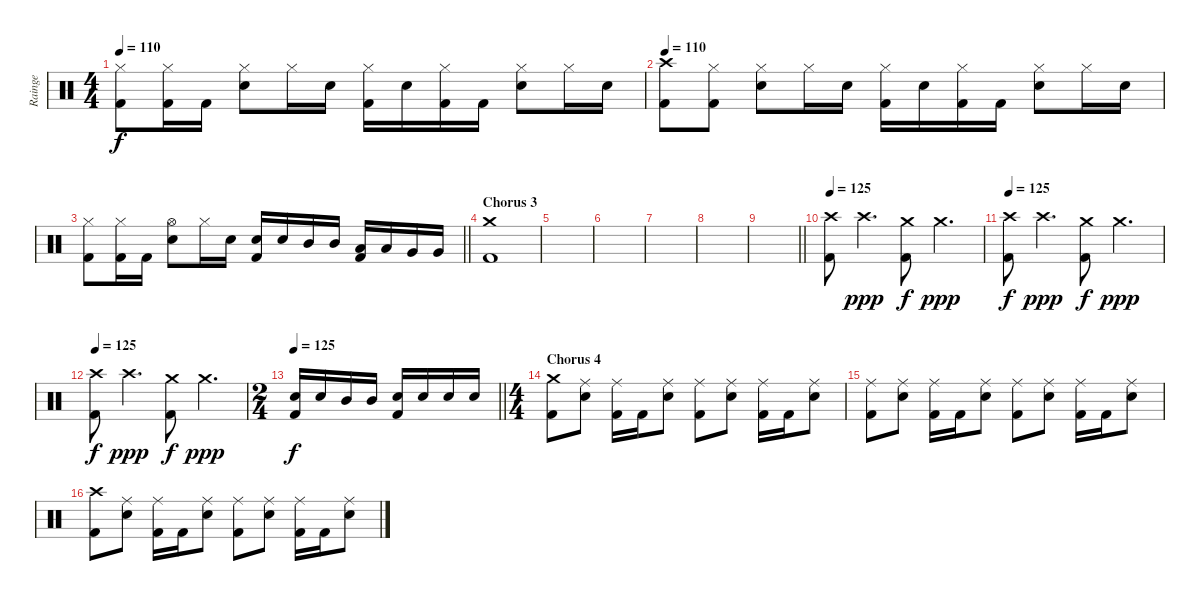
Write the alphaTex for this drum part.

\track ("Rainge" "Rainge") {instrument percussion}
\staff {score}
\articulation defaults
\ts (4 4)
\tempo 110
\clef neutral
\ks c
("Hi-Hat (closed)" "Kick (hit) 2").8{dy f} ("Hi-Hat (closed)" "Kick (hit) 2").16 "Kick (hit) 2".16 ("Hi-Hat (closed)" "Electric Snare (hit)").8 "Hi-Hat (closed)".16 "Electric Snare (hit)".16 ("Hi-Hat (closed)" "Kick (hit) 2").16 "Electric Snare (hit)".16 ("Hi-Hat (closed)" "Kick (hit) 2").16 "Kick (hit) 2".16 ("Hi-Hat (closed)" "Electric Snare (hit)").8 "Hi-Hat (closed)".16 "Electric Snare (hit)".16 |
\tempo 110
("Crash high (hit)" "Kick (hit) 2").8 ("Hi-Hat (closed)" "Kick (hit) 2").8 ("Hi-Hat (closed)" "Electric Snare (hit)").8 "Hi-Hat (closed)".16 "Electric Snare (hit)".16 ("Hi-Hat (closed)" "Kick (hit) 2").16 "Electric Snare (hit)".16 ("Hi-Hat (closed)" "Kick (hit) 2").16 "Kick (hit) 2".16 ("Hi-Hat (closed)" "Electric Snare (hit)").8 "Hi-Hat (closed)".16 "Electric Snare (hit)".16 |
\barLineRight lightlight
("Hi-Hat (closed)" "Kick (hit) 2").8 ("Hi-Hat (closed)" "Kick (hit) 2").16 "Kick (hit) 2".16 ("Hi-Hat (open)" "Electric Snare (hit)").8 "Hi-Hat (closed)".16 "Electric Snare (hit)".16 ("Electric Snare (hit)" "Kick (hit) 2").16 "Electric Snare (hit)".16 "Mid Tom (hit)".16 "Mid Tom (hit)".16 ("Low Tom (hit)" "Kick (hit) 2").16 "Low Tom (hit)".16 "Very Low Tom (hit)".16 "Very Low Tom (hit)".16 |
\section ("" "Chorus 3")
("Crash medium (hit)" "Kick (hit) 2").1 |
|
|
|
|
\barLineRight lightlight
|
\section ("" "")
\tempo 125
("Crash high (hit)" "Kick (hit) 2").8 "Crash high (hit)".4{d dy ppp} ("Crash medium (hit)" "Kick (hit) 2").8{dy f} "Crash medium (hit)".4{d dy ppp} |
\tempo 125
("Crash high (hit)" "Kick (hit) 2").8{dy f} "Crash high (hit)".4{d dy ppp} ("Crash medium (hit)" "Kick (hit) 2").8{dy f} "Crash medium (hit)".4{d dy ppp} |
\tempo 125
("Crash high (hit)" "Kick (hit) 2").8{dy f} "Crash high (hit)".4{d dy ppp} ("Crash medium (hit)" "Kick (hit) 2").8{dy f} "Crash medium (hit)".4{d dy ppp} |
\ts (2 4)
\tempo 125
\barLineRight lightlight
("Electric Snare (hit)" "Kick (hit) 2").16{dy f} "Electric Snare (hit)".16 "Mid Tom (hit)".16 "Mid Tom (hit)".16 ("Electric Snare (hit)" "Kick (hit) 2").16 "Electric Snare (hit)".16 "Electric Snare (hit)".16 "Electric Snare (hit)".16 |
\ts (4 4)
\section ("" "Chorus 4")
("Crash medium (hit)" "Kick (hit) 2").8 ("Ride (middle)" "Electric Snare (hit)").8 ("Ride (middle)" "Kick (hit) 2").16 "Kick (hit) 2".16 ("Ride (middle)" "Electric Snare (hit)").8 ("Ride (middle)" "Kick (hit) 2").8 ("Ride (middle)" "Electric Snare (hit)").8 ("Ride (middle)" "Kick (hit) 2").16 "Kick (hit) 2".16 ("Ride (middle)" "Electric Snare (hit)").8 |
("Ride (middle)" "Kick (hit) 2").8 ("Ride (middle)" "Electric Snare (hit)").8 ("Ride (middle)" "Kick (hit) 2").16 "Kick (hit) 2".16 ("Ride (middle)" "Electric Snare (hit)").8 ("Ride (middle)" "Kick (hit) 2").8 ("Ride (middle)" "Electric Snare (hit)").8 ("Ride (middle)" "Kick (hit) 2").16 "Kick (hit) 2".16 ("Ride (middle)" "Electric Snare (hit)").8 |
("Crash high (hit)" "Kick (hit) 2").8 ("Ride (middle)" "Electric Snare (hit)").8 ("Ride (middle)" "Kick (hit) 2").16 "Kick (hit) 2".16 ("Ride (middle)" "Electric Snare (hit)").8 ("Ride (middle)" "Kick (hit) 2").8 ("Ride (middle)" "Electric Snare (hit)").8 ("Ride (middle)" "Kick (hit) 2").16 "Kick (hit) 2".16 ("Ride (middle)" "Electric Snare (hit)").8
